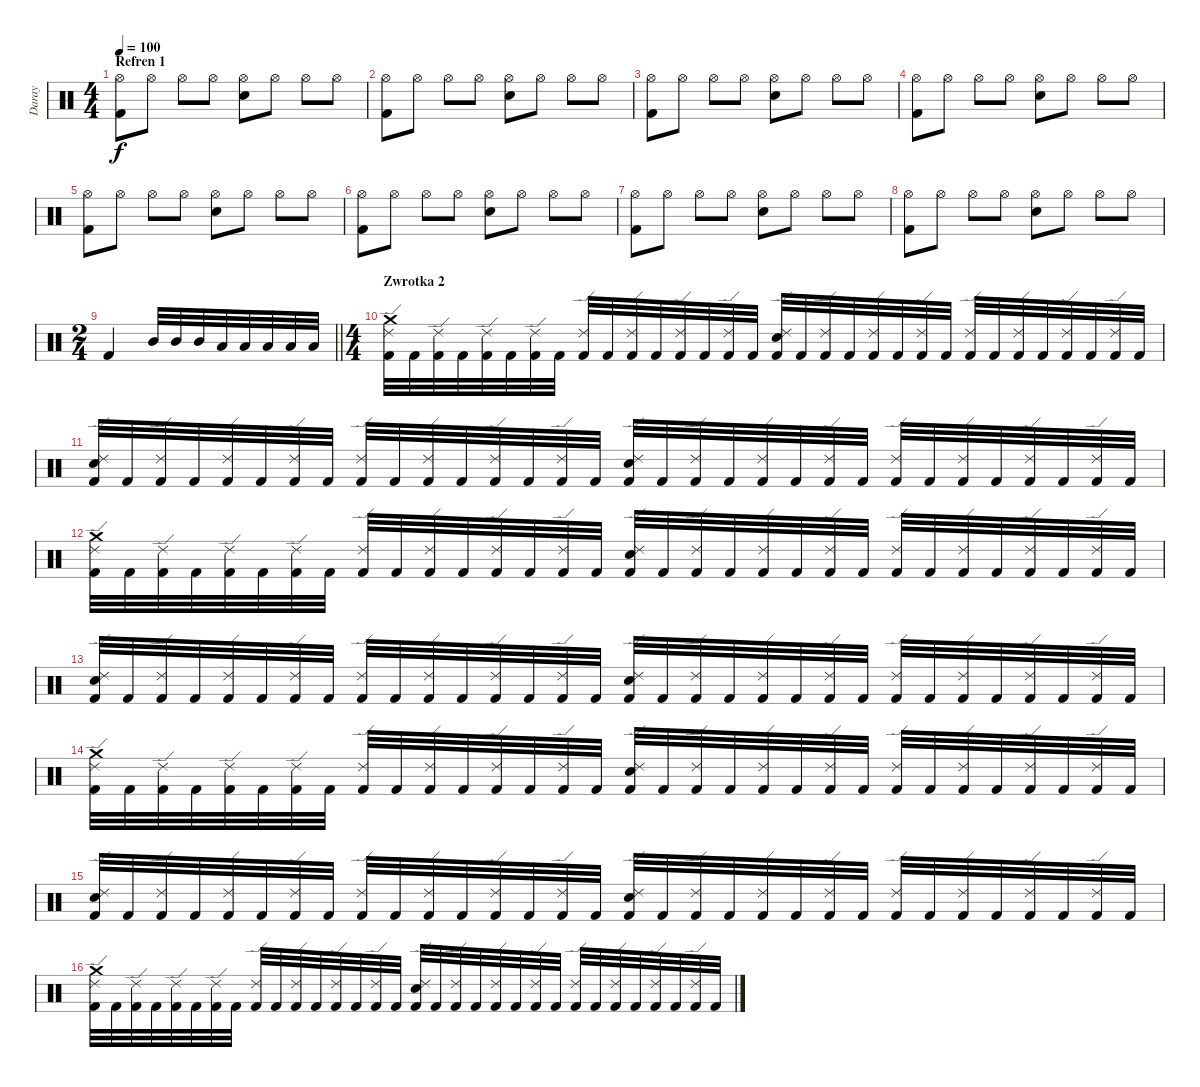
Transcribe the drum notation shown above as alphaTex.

\track ("Daray" "Daray") {instrument percussion}
\staff {score}
\articulation defaults
\ts (4 4)
\section ("" "Refren 1")
\tempo 100
\clef neutral
\ks c
("Hi-Hat (open)" "Kick (hit) 2").8{dy f} "Hi-Hat (open)".8 "Hi-Hat (open)".8 "Hi-Hat (open)".8 ("Hi-Hat (open)" "Electric Snare (hit)").8 "Hi-Hat (open)".8 "Hi-Hat (open)".8 "Hi-Hat (open)".8 |
("Hi-Hat (open)" "Kick (hit) 2").8 "Hi-Hat (open)".8 "Hi-Hat (open)".8 "Hi-Hat (open)".8 ("Hi-Hat (open)" "Electric Snare (hit)").8 "Hi-Hat (open)".8 "Hi-Hat (open)".8 "Hi-Hat (open)".8 |
("Hi-Hat (open)" "Kick (hit) 2").8 "Hi-Hat (open)".8 "Hi-Hat (open)".8 "Hi-Hat (open)".8 ("Hi-Hat (open)" "Electric Snare (hit)").8 "Hi-Hat (open)".8 "Hi-Hat (open)".8 "Hi-Hat (open)".8 |
("Hi-Hat (open)" "Kick (hit) 2").8 "Hi-Hat (open)".8 "Hi-Hat (open)".8 "Hi-Hat (open)".8 ("Hi-Hat (open)" "Electric Snare (hit)").8 "Hi-Hat (open)".8 "Hi-Hat (open)".8 "Hi-Hat (open)".8 |
("Hi-Hat (open)" "Kick (hit) 2").8 "Hi-Hat (open)".8 "Hi-Hat (open)".8 "Hi-Hat (open)".8 ("Hi-Hat (open)" "Electric Snare (hit)").8 "Hi-Hat (open)".8 "Hi-Hat (open)".8 "Hi-Hat (open)".8 |
("Hi-Hat (open)" "Kick (hit) 2").8 "Hi-Hat (open)".8 "Hi-Hat (open)".8 "Hi-Hat (open)".8 ("Hi-Hat (open)" "Electric Snare (hit)").8 "Hi-Hat (open)".8 "Hi-Hat (open)".8 "Hi-Hat (open)".8 |
("Hi-Hat (open)" "Kick (hit) 2").8 "Hi-Hat (open)".8 "Hi-Hat (open)".8 "Hi-Hat (open)".8 ("Hi-Hat (open)" "Electric Snare (hit)").8 "Hi-Hat (open)".8 "Hi-Hat (open)".8 "Hi-Hat (open)".8 |
("Hi-Hat (open)" "Kick (hit) 2").8 "Hi-Hat (open)".8 "Hi-Hat (open)".8 "Hi-Hat (open)".8 ("Hi-Hat (open)" "Electric Snare (hit)").8 "Hi-Hat (open)".8 "Hi-Hat (open)".8 "Hi-Hat (open)".8 |
\ts (2 4)
\barLineRight lightlight "Kick (hit) 2".4 "Mid Tom (hit)".32 "Mid Tom (hit)".32 "Mid Tom (hit)".32 "Low Tom (hit)".32 "Low Tom (hit)".32 "Low Tom (hit)".32 "Low Floor Tom (hit)".32 "Low Floor Tom (hit)".32
|
\ts (4 4)
\section ("" "Zwrotka 2")
("Ride (edge) 2" "Crash medium (hit)" "Kick (hit) 2").32 "Kick (hit) 2".32 ("Ride (edge) 2" "Kick (hit) 2").32 "Kick (hit) 2".32 ("Ride (edge) 2" "Kick (hit) 2").32 "Kick (hit) 2".32 ("Ride (edge) 2" "Kick (hit) 2").32 "Kick (hit) 2".32 ("Ride (edge) 2" "Kick (hit) 2").32 "Kick (hit) 2".32 ("Ride (edge) 2" "Kick (hit) 2").32 "Kick (hit) 2".32 ("Ride (edge) 2" "Kick (hit) 2").32 "Kick (hit) 2".32 ("Ride (edge) 2" "Kick (hit) 2").32 "Kick (hit) 2".32 ("Snare (hit) 2" "Ride (edge) 2" "Kick (hit) 2").32 "Kick (hit) 2".32 ("Ride (edge) 2" "Kick (hit) 2").32 "Kick (hit) 2".32 ("Ride (edge) 2" "Kick (hit) 2").32 "Kick (hit) 2".32 ("Ride (edge) 2" "Kick (hit) 2").32 "Kick (hit) 2".32 ("Ride (edge) 2" "Kick (hit) 2").32 "Kick (hit) 2".32 ("Ride (edge) 2" "Kick (hit) 2").32 "Kick (hit) 2".32 ("Ride (edge) 2" "Kick (hit) 2").32 "Kick (hit) 2".32 ("Ride (edge) 2" "Kick (hit) 2").32 "Kick (hit) 2".32 |
("Snare (hit) 2" "Ride (edge) 2" "Kick (hit) 2").32 "Kick (hit) 2".32 ("Ride (edge) 2" "Kick (hit) 2").32 "Kick (hit) 2".32 ("Ride (edge) 2" "Kick (hit) 2").32 "Kick (hit) 2".32 ("Ride (edge) 2" "Kick (hit) 2").32 "Kick (hit) 2".32 ("Ride (edge) 2" "Kick (hit) 2").32 "Kick (hit) 2".32 ("Ride (edge) 2" "Kick (hit) 2").32 "Kick (hit) 2".32 ("Ride (edge) 2" "Kick (hit) 2").32 "Kick (hit) 2".32 ("Ride (edge) 2" "Kick (hit) 2").32 "Kick (hit) 2".32 ("Snare (hit) 2" "Ride (edge) 2" "Kick (hit) 2").32 "Kick (hit) 2".32 ("Ride (edge) 2" "Kick (hit) 2").32 "Kick (hit) 2".32 ("Ride (edge) 2" "Kick (hit) 2").32 "Kick (hit) 2".32 ("Ride (edge) 2" "Kick (hit) 2").32 "Kick (hit) 2".32 ("Ride (edge) 2" "Kick (hit) 2").32 "Kick (hit) 2".32 ("Ride (edge) 2" "Kick (hit) 2").32 "Kick (hit) 2".32 ("Ride (edge) 2" "Kick (hit) 2").32 "Kick (hit) 2".32 ("Ride (edge) 2" "Kick (hit) 2").32 "Kick (hit) 2".32 |
("Ride (edge) 2" "Crash medium (hit)" "Kick (hit) 2").32 "Kick (hit) 2".32 ("Ride (edge) 2" "Kick (hit) 2").32 "Kick (hit) 2".32 ("Ride (edge) 2" "Kick (hit) 2").32 "Kick (hit) 2".32 ("Ride (edge) 2" "Kick (hit) 2").32 "Kick (hit) 2".32 ("Ride (edge) 2" "Kick (hit) 2").32 "Kick (hit) 2".32 ("Ride (edge) 2" "Kick (hit) 2").32 "Kick (hit) 2".32 ("Ride (edge) 2" "Kick (hit) 2").32 "Kick (hit) 2".32 ("Ride (edge) 2" "Kick (hit) 2").32 "Kick (hit) 2".32 ("Snare (hit) 2" "Ride (edge) 2" "Kick (hit) 2").32 "Kick (hit) 2".32 ("Ride (edge) 2" "Kick (hit) 2").32 "Kick (hit) 2".32 ("Ride (edge) 2" "Kick (hit) 2").32 "Kick (hit) 2".32 ("Ride (edge) 2" "Kick (hit) 2").32 "Kick (hit) 2".32 ("Ride (edge) 2" "Kick (hit) 2").32 "Kick (hit) 2".32 ("Ride (edge) 2" "Kick (hit) 2").32 "Kick (hit) 2".32 ("Ride (edge) 2" "Kick (hit) 2").32 "Kick (hit) 2".32 ("Ride (edge) 2" "Kick (hit) 2").32 "Kick (hit) 2".32 |
("Snare (hit) 2" "Ride (edge) 2" "Kick (hit) 2").32 "Kick (hit) 2".32 ("Ride (edge) 2" "Kick (hit) 2").32 "Kick (hit) 2".32 ("Ride (edge) 2" "Kick (hit) 2").32 "Kick (hit) 2".32 ("Ride (edge) 2" "Kick (hit) 2").32 "Kick (hit) 2".32 ("Ride (edge) 2" "Kick (hit) 2").32 "Kick (hit) 2".32 ("Ride (edge) 2" "Kick (hit) 2").32 "Kick (hit) 2".32 ("Ride (edge) 2" "Kick (hit) 2").32 "Kick (hit) 2".32 ("Ride (edge) 2" "Kick (hit) 2").32 "Kick (hit) 2".32 ("Snare (hit) 2" "Ride (edge) 2" "Kick (hit) 2").32 "Kick (hit) 2".32 ("Ride (edge) 2" "Kick (hit) 2").32 "Kick (hit) 2".32 ("Ride (edge) 2" "Kick (hit) 2").32 "Kick (hit) 2".32 ("Ride (edge) 2" "Kick (hit) 2").32 "Kick (hit) 2".32 ("Ride (edge) 2" "Kick (hit) 2").32 "Kick (hit) 2".32 ("Ride (edge) 2" "Kick (hit) 2").32 "Kick (hit) 2".32 ("Ride (edge) 2" "Kick (hit) 2").32 "Kick (hit) 2".32 ("Ride (edge) 2" "Kick (hit) 2").32 "Kick (hit) 2".32 |
("Ride (edge) 2" "Crash medium (hit)" "Kick (hit) 2").32 "Kick (hit) 2".32 ("Ride (edge) 2" "Kick (hit) 2").32 "Kick (hit) 2".32 ("Ride (edge) 2" "Kick (hit) 2").32 "Kick (hit) 2".32 ("Ride (edge) 2" "Kick (hit) 2").32 "Kick (hit) 2".32 ("Ride (edge) 2" "Kick (hit) 2").32 "Kick (hit) 2".32 ("Ride (edge) 2" "Kick (hit) 2").32 "Kick (hit) 2".32 ("Ride (edge) 2" "Kick (hit) 2").32 "Kick (hit) 2".32 ("Ride (edge) 2" "Kick (hit) 2").32 "Kick (hit) 2".32 ("Snare (hit) 2" "Ride (edge) 2" "Kick (hit) 2").32 "Kick (hit) 2".32 ("Ride (edge) 2" "Kick (hit) 2").32 "Kick (hit) 2".32 ("Ride (edge) 2" "Kick (hit) 2").32 "Kick (hit) 2".32 ("Ride (edge) 2" "Kick (hit) 2").32 "Kick (hit) 2".32 ("Ride (edge) 2" "Kick (hit) 2").32 "Kick (hit) 2".32 ("Ride (edge) 2" "Kick (hit) 2").32 "Kick (hit) 2".32 ("Ride (edge) 2" "Kick (hit) 2").32 "Kick (hit) 2".32 ("Ride (edge) 2" "Kick (hit) 2").32 "Kick (hit) 2".32 |
("Snare (hit) 2" "Ride (edge) 2" "Kick (hit) 2").32 "Kick (hit) 2".32 ("Ride (edge) 2" "Kick (hit) 2").32 "Kick (hit) 2".32 ("Ride (edge) 2" "Kick (hit) 2").32 "Kick (hit) 2".32 ("Ride (edge) 2" "Kick (hit) 2").32 "Kick (hit) 2".32 ("Ride (edge) 2" "Kick (hit) 2").32 "Kick (hit) 2".32 ("Ride (edge) 2" "Kick (hit) 2").32 "Kick (hit) 2".32 ("Ride (edge) 2" "Kick (hit) 2").32 "Kick (hit) 2".32 ("Ride (edge) 2" "Kick (hit) 2").32 "Kick (hit) 2".32 ("Snare (hit) 2" "Ride (edge) 2" "Kick (hit) 2").32 "Kick (hit) 2".32 ("Ride (edge) 2" "Kick (hit) 2").32 "Kick (hit) 2".32 ("Ride (edge) 2" "Kick (hit) 2").32 "Kick (hit) 2".32 ("Ride (edge) 2" "Kick (hit) 2").32 "Kick (hit) 2".32 ("Ride (edge) 2" "Kick (hit) 2").32 "Kick (hit) 2".32 ("Ride (edge) 2" "Kick (hit) 2").32 "Kick (hit) 2".32 ("Ride (edge) 2" "Kick (hit) 2").32 "Kick (hit) 2".32 ("Ride (edge) 2" "Kick (hit) 2").32 "Kick (hit) 2".32 |
("Ride (edge) 2" "Crash medium (hit)" "Kick (hit) 2").32 "Kick (hit) 2".32 ("Ride (edge) 2" "Kick (hit) 2").32 "Kick (hit) 2".32 ("Ride (edge) 2" "Kick (hit) 2").32 "Kick (hit) 2".32 ("Ride (edge) 2" "Kick (hit) 2").32 "Kick (hit) 2".32 ("Ride (edge) 2" "Kick (hit) 2").32 "Kick (hit) 2".32 ("Ride (edge) 2" "Kick (hit) 2").32 "Kick (hit) 2".32 ("Ride (edge) 2" "Kick (hit) 2").32 "Kick (hit) 2".32 ("Ride (edge) 2" "Kick (hit) 2").32 "Kick (hit) 2".32 ("Snare (hit) 2" "Ride (edge) 2" "Kick (hit) 2").32 "Kick (hit) 2".32 ("Ride (edge) 2" "Kick (hit) 2").32 "Kick (hit) 2".32 ("Ride (edge) 2" "Kick (hit) 2").32 "Kick (hit) 2".32 ("Ride (edge) 2" "Kick (hit) 2").32 "Kick (hit) 2".32 ("Ride (edge) 2" "Kick (hit) 2").32 "Kick (hit) 2".32 ("Ride (edge) 2" "Kick (hit) 2").32 "Kick (hit) 2".32 ("Ride (edge) 2" "Kick (hit) 2").32 "Kick (hit) 2".32 ("Ride (edge) 2" "Kick (hit) 2").32 "Kick (hit) 2".32
